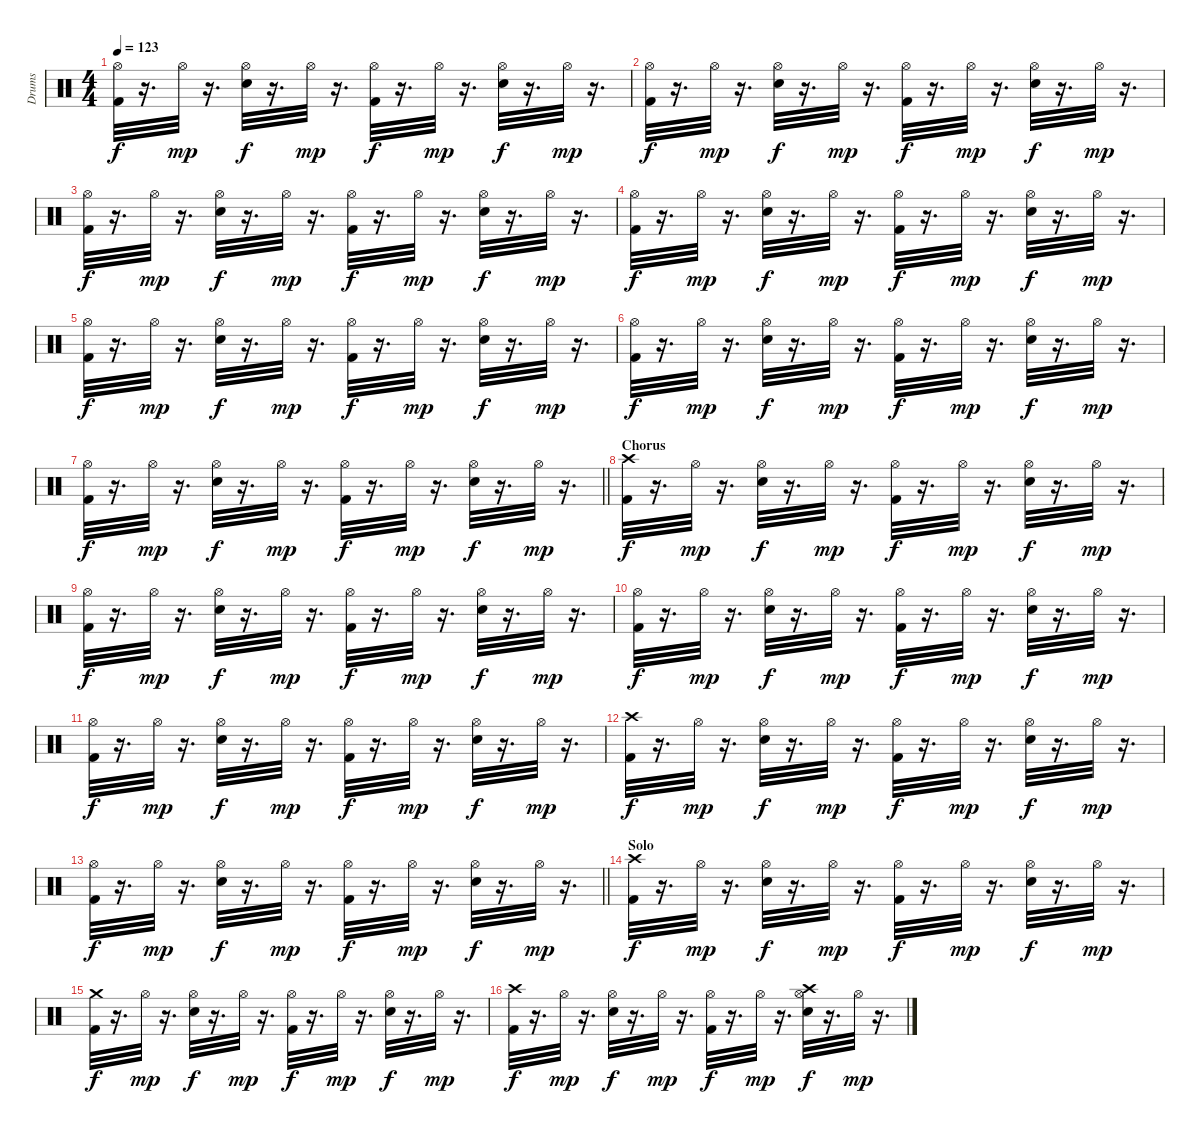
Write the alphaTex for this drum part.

\track ("Drums" "Drums") {instrument percussion}
\staff {score}
\articulation defaults
\ts (4 4)
\tempo 123
\clef neutral
\ks c
("Hi-Hat (open)" "Kick (hit) 2").32{dy f} r.16{d} "Hi-Hat (open)".32{dy mp} r.16{d} ("Hi-Hat (open)" "Electric Snare (hit)").32{dy f} r.16{d} "Hi-Hat (open)".32{dy mp} r.16{d} ("Hi-Hat (open)" "Kick (hit) 2").32{dy f} r.16{d} "Hi-Hat (open)".32{dy mp} r.16{d} ("Hi-Hat (open)" "Electric Snare (hit)").32{dy f} r.16{d} "Hi-Hat (open)".32{dy mp} r.16{d} |
("Hi-Hat (open)" "Kick (hit) 2").32{dy f} r.16{d} "Hi-Hat (open)".32{dy mp} r.16{d} ("Hi-Hat (open)" "Electric Snare (hit)").32{dy f} r.16{d} "Hi-Hat (open)".32{dy mp} r.16{d} ("Hi-Hat (open)" "Kick (hit) 2").32{dy f} r.16{d} "Hi-Hat (open)".32{dy mp} r.16{d} ("Hi-Hat (open)" "Electric Snare (hit)").32{dy f} r.16{d} "Hi-Hat (open)".32{dy mp} r.16{d} |
("Hi-Hat (open)" "Kick (hit) 2").32{dy f} r.16{d} "Hi-Hat (open)".32{dy mp} r.16{d} ("Hi-Hat (open)" "Electric Snare (hit)").32{dy f} r.16{d} "Hi-Hat (open)".32{dy mp} r.16{d} ("Hi-Hat (open)" "Kick (hit) 2").32{dy f} r.16{d} "Hi-Hat (open)".32{dy mp} r.16{d} ("Hi-Hat (open)" "Electric Snare (hit)").32{dy f} r.16{d} "Hi-Hat (open)".32{dy mp} r.16{d} |
("Hi-Hat (open)" "Kick (hit) 2").32{dy f} r.16{d} "Hi-Hat (open)".32{dy mp} r.16{d} ("Hi-Hat (open)" "Electric Snare (hit)").32{dy f} r.16{d} "Hi-Hat (open)".32{dy mp} r.16{d} ("Hi-Hat (open)" "Kick (hit) 2").32{dy f} r.16{d} "Hi-Hat (open)".32{dy mp} r.16{d} ("Hi-Hat (open)" "Electric Snare (hit)").32{dy f} r.16{d} "Hi-Hat (open)".32{dy mp} r.16{d} |
("Hi-Hat (open)" "Kick (hit) 2").32{dy f} r.16{d} "Hi-Hat (open)".32{dy mp} r.16{d} ("Hi-Hat (open)" "Electric Snare (hit)").32{dy f} r.16{d} "Hi-Hat (open)".32{dy mp} r.16{d} ("Hi-Hat (open)" "Kick (hit) 2").32{dy f} r.16{d} "Hi-Hat (open)".32{dy mp} r.16{d} ("Hi-Hat (open)" "Electric Snare (hit)").32{dy f} r.16{d} "Hi-Hat (open)".32{dy mp} r.16{d} |
("Hi-Hat (open)" "Kick (hit) 2").32{dy f} r.16{d} "Hi-Hat (open)".32{dy mp} r.16{d} ("Hi-Hat (open)" "Electric Snare (hit)").32{dy f} r.16{d} "Hi-Hat (open)".32{dy mp} r.16{d} ("Hi-Hat (open)" "Kick (hit) 2").32{dy f} r.16{d} "Hi-Hat (open)".32{dy mp} r.16{d} ("Hi-Hat (open)" "Electric Snare (hit)").32{dy f} r.16{d} "Hi-Hat (open)".32{dy mp} r.16{d} |
\barLineRight lightlight
("Hi-Hat (open)" "Kick (hit) 2").32{dy f} r.16{d} "Hi-Hat (open)".32{dy mp} r.16{d} ("Hi-Hat (open)" "Electric Snare (hit)").32{dy f} r.16{d} "Hi-Hat (open)".32{dy mp} r.16{d} ("Hi-Hat (open)" "Kick (hit) 2").32{dy f} r.16{d} "Hi-Hat (open)".32{dy mp} r.16{d} ("Hi-Hat (open)" "Electric Snare (hit)").32{dy f} r.16{d} "Hi-Hat (open)".32{dy mp} r.16{d} |
\section ("" "Chorus")
("Crash high (hit)" "Kick (hit) 2").32{dy f} r.16{d} "Hi-Hat (open)".32{dy mp} r.16{d} ("Hi-Hat (open)" "Electric Snare (hit)").32{dy f} r.16{d} "Hi-Hat (open)".32{dy mp} r.16{d} ("Kick (hit) 2" "Hi-Hat (open)").32{dy f} r.16{d} "Hi-Hat (open)".32{dy mp} r.16{d} ("Hi-Hat (open)" "Electric Snare (hit)").32{dy f} r.16{d} "Hi-Hat (open)".32{dy mp} r.16{d} |
("Hi-Hat (open)" "Kick (hit) 2").32{dy f} r.16{d} "Hi-Hat (open)".32{dy mp} r.16{d} ("Hi-Hat (open)" "Electric Snare (hit)").32{dy f} r.16{d} "Hi-Hat (open)".32{dy mp} r.16{d} ("Hi-Hat (open)" "Kick (hit) 2").32{dy f} r.16{d} "Hi-Hat (open)".32{dy mp} r.16{d} ("Hi-Hat (open)" "Electric Snare (hit)").32{dy f} r.16{d} "Hi-Hat (open)".32{dy mp} r.16{d} |
("Hi-Hat (open)" "Kick (hit) 2").32{dy f} r.16{d} "Hi-Hat (open)".32{dy mp} r.16{d} ("Hi-Hat (open)" "Electric Snare (hit)").32{dy f} r.16{d} "Hi-Hat (open)".32{dy mp} r.16{d} ("Hi-Hat (open)" "Kick (hit) 2").32{dy f} r.16{d} "Hi-Hat (open)".32{dy mp} r.16{d} ("Hi-Hat (open)" "Electric Snare (hit)").32{dy f} r.16{d} "Hi-Hat (open)".32{dy mp} r.16{d} |
("Hi-Hat (open)" "Kick (hit) 2").32{dy f} r.16{d} "Hi-Hat (open)".32{dy mp} r.16{d} ("Hi-Hat (open)" "Electric Snare (hit)").32{dy f} r.16{d} "Hi-Hat (open)".32{dy mp} r.16{d} ("Hi-Hat (open)" "Kick (hit) 2").32{dy f} r.16{d} "Hi-Hat (open)".32{dy mp} r.16{d} ("Hi-Hat (open)" "Electric Snare (hit)").32{dy f} r.16{d} "Hi-Hat (open)".32{dy mp} r.16{d} |
("Crash high (hit)" "Kick (hit) 2").32{dy f} r.16{d} "Hi-Hat (open)".32{dy mp} r.16{d} ("Hi-Hat (open)" "Electric Snare (hit)").32{dy f} r.16{d} "Hi-Hat (open)".32{dy mp} r.16{d} ("Kick (hit) 2" "Hi-Hat (open)").32{dy f} r.16{d} "Hi-Hat (open)".32{dy mp} r.16{d} ("Hi-Hat (open)" "Electric Snare (hit)").32{dy f} r.16{d} "Hi-Hat (open)".32{dy mp} r.16{d} |
\barLineRight lightlight
("Hi-Hat (open)" "Kick (hit) 2").32{dy f} r.16{d} "Hi-Hat (open)".32{dy mp} r.16{d} ("Hi-Hat (open)" "Electric Snare (hit)").32{dy f} r.16{d} "Hi-Hat (open)".32{dy mp} r.16{d} ("Hi-Hat (open)" "Kick (hit) 2").32{dy f} r.16{d} "Hi-Hat (open)".32{dy mp} r.16{d} ("Hi-Hat (open)" "Electric Snare (hit)").32{dy f} r.16{d} "Hi-Hat (open)".32{dy mp} r.16{d} |
\section ("" "Solo")
("Crash high (hit)" "Kick (hit) 2").32{dy f} r.16{d} "Hi-Hat (open)".32{dy mp} r.16{d} ("Hi-Hat (open)" "Electric Snare (hit)").32{dy f} r.16{d} "Hi-Hat (open)".32{dy mp} r.16{d} ("Hi-Hat (open)" "Kick (hit) 2").32{dy f} r.16{d} "Hi-Hat (open)".32{dy mp} r.16{d} ("Hi-Hat (open)" "Electric Snare (hit)").32{dy f} r.16{d} "Hi-Hat (open)".32{dy mp} r.16{d} |
("Crash medium (hit)" "Kick (hit) 2").32{dy f} r.16{d} "Hi-Hat (open)".32{dy mp} r.16{d} ("Hi-Hat (open)" "Electric Snare (hit)").32{dy f} r.16{d} "Hi-Hat (open)".32{dy mp} r.16{d} ("Hi-Hat (open)" "Kick (hit) 2").32{dy f} r.16{d} "Hi-Hat (open)".32{dy mp} r.16{d} ("Hi-Hat (open)" "Electric Snare (hit)").32{dy f} r.16{d} "Hi-Hat (open)".32{dy mp} r.16{d} |
("Kick (hit) 2" "Crash high (hit)").32{dy f} r.16{d} "Hi-Hat (open)".32{dy mp} r.16{d} ("Hi-Hat (open)" "Electric Snare (hit)").32{dy f} r.16{d} "Hi-Hat (open)".32{dy mp} r.16{d} ("Hi-Hat (open)" "Kick (hit) 2").32{dy f} r.16{d} "Hi-Hat (open)".32{dy mp} r.16{d} ("Hi-Hat (open)" "Crash high (hit)" "Electric Snare (hit)").32{dy f} r.16{d} "Hi-Hat (open)".32{dy mp} r.16{d}
